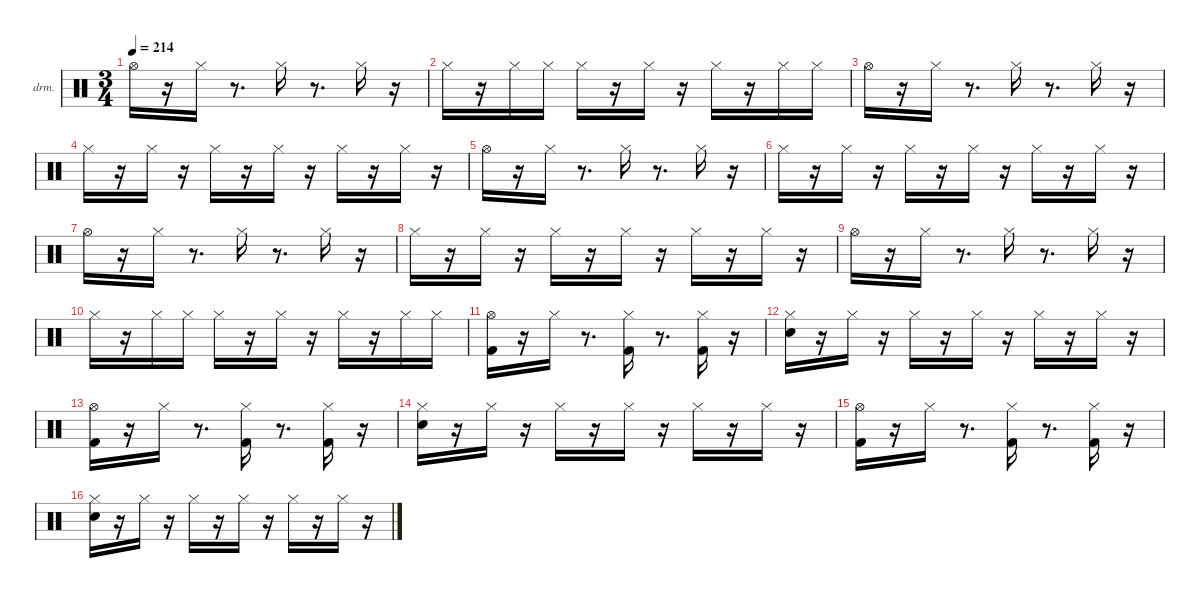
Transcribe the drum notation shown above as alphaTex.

\hideDynamics
\bracketExtendMode nobrackets
\firstSystemTrackNameOrientation horizontal
\otherSystemsTrackNameOrientation horizontal
\track ("EZdrummer 3" "drm.") {instrument percussion}
\staff {score}
\articulation defaults
\ts (3 4)
\tempo 214
\clef neutral
\ks aminor "Hi-Hat (open)"{acc #}.16{dy fff beam Down}
r.16{beam Down} "Hi-Hat (closed)"{acc #}.16{dy ff beam Down} r.8{d beam Down} "Hi-Hat (closed)"{acc #}.16{dy mp beam Down} r.8{d beam Down} "Hi-Hat (closed)"{acc #}.16{dy mf beam Down} r.16{beam Down} |
"Hi-Hat (closed)"{acc #}.16{dy ff beam Down} r.16{beam Down} "Hi-Hat (closed)"{acc #}.16{dy p beam Down} "Hi-Hat (closed)"{acc #}.16{dy pp beam Down} "Hi-Hat (closed)"{acc #}.16{dy ff beam Down} r.16{beam Down} "Hi-Hat (closed)"{acc #}.16{dy ppp beam Down} r.16{beam Down} "Hi-Hat (closed)"{acc #}.16{dy mp beam Down} r.16{beam Down} "Hi-Hat (closed)"{acc #}.16{dy ppp beam Down} "Hi-Hat (closed)"{acc #}.16{beam Down} |
"Hi-Hat (open)"{acc #}.16{dy fff beam Down} r.16{beam Down} "Hi-Hat (closed)"{acc #}.16{dy ff beam Down} r.8{d beam Down} "Hi-Hat (closed)"{acc #}.16{dy mp beam Down} r.8{d beam Down} "Hi-Hat (closed)"{acc #}.16{dy mf beam Down} r.16{beam Down} |
"Hi-Hat (closed)"{acc #}.16{dy ff beam Down} r.16{beam Down} "Hi-Hat (closed)"{acc #}.16{dy ppp beam Down} r.16{beam Down} "Hi-Hat (closed)"{acc #}.16{dy mp beam Down} r.16{beam Down} "Hi-Hat (closed)"{acc #}.16{dy ppp beam Down} r.16{beam Down} "Hi-Hat (closed)"{acc #}.16{dy mp beam Down} r.16{beam Down} "Hi-Hat (closed)"{acc #}.16{dy ppp beam Down} r.16{beam Down} |
"Hi-Hat (open)"{acc #}.16{dy fff beam Down} r.16{beam Down} "Hi-Hat (closed)"{acc #}.16{dy ff beam Down} r.8{d beam Down} "Hi-Hat (closed)"{acc #}.16{dy mp beam Down} r.8{d beam Down} "Hi-Hat (closed)"{acc #}.16{dy mf beam Down} r.16{beam Down} |
"Hi-Hat (closed)"{acc #}.16{dy ff beam Down} r.16{beam Down} "Hi-Hat (closed)"{acc #}.16{dy ppp beam Down} r.16{beam Down} "Hi-Hat (closed)"{acc #}.16{dy mp beam Down} r.16{beam Down} "Hi-Hat (closed)"{acc #}.16{dy ppp beam Down} r.16{beam Down} "Hi-Hat (closed)"{acc #}.16{dy mp beam Down} r.16{beam Down} "Hi-Hat (closed)"{acc #}.16{dy ppp beam Down} r.16{beam Down} |
"Hi-Hat (open)"{acc #}.16{dy fff beam Down} r.16{beam Down} "Hi-Hat (closed)"{acc #}.16{dy ff beam Down} r.8{d beam Down} "Hi-Hat (closed)"{acc #}.16{dy mp beam Down} r.8{d beam Down} "Hi-Hat (closed)"{acc #}.16{dy mf beam Down} r.16{beam Down} |
"Hi-Hat (closed)"{acc #}.16{dy ff beam Down} r.16{beam Down} "Hi-Hat (closed)"{acc #}.16{dy ppp beam Down} r.16{beam Down} "Hi-Hat (closed)"{acc #}.16{dy mp beam Down} r.16{beam Down} "Hi-Hat (closed)"{acc #}.16{dy ppp beam Down} r.16{beam Down} "Hi-Hat (closed)"{acc #}.16{dy mp beam Down} r.16{beam Down} "Hi-Hat (closed)"{acc #}.16{dy ppp beam Down} r.16{beam Down} |
"Hi-Hat (open)"{acc #}.16{dy fff beam Down} r.16{beam Down} "Hi-Hat (closed)"{acc #}.16{dy ff beam Down} r.8{d beam Down} "Hi-Hat (closed)"{acc #}.16{dy mp beam Down} r.8{d beam Down} "Hi-Hat (closed)"{acc #}.16{dy mf beam Down} r.16{beam Down} |
"Hi-Hat (closed)"{acc #}.16{dy ff beam Down} r.16{beam Down} "Hi-Hat (closed)"{acc #}.16{dy p beam Down} "Hi-Hat (closed)"{acc #}.16{dy pp beam Down} "Hi-Hat (closed)"{acc #}.16{dy ff beam Down} r.16{beam Down} "Hi-Hat (closed)"{acc #}.16{dy ppp beam Down} r.16{beam Down} "Hi-Hat (closed)"{acc #}.16{dy mp beam Down} r.16{beam Down} "Hi-Hat (closed)"{acc #}.16{dy ppp beam Down} "Hi-Hat (closed)"{acc #}.16{beam Down} |
("Kick (hit) 2" "Hi-Hat (open)"{acc #}).16{dy ff beam Down} r.16{beam Down} "Hi-Hat (closed)"{acc #}.16{beam Down} r.8{d beam Down} ("Kick (hit) 2" "Hi-Hat (closed)"{acc #}).16{dy mp beam Down} r.8{d beam Down} ("Kick (hit) 2" "Hi-Hat (closed)"{acc #}).16{dy mf beam Down} r.16{beam Down} |
("Snare (hit) 2" "Hi-Hat (closed)"{acc #}).16{dy ff beam Down} r.16{beam Down} "Hi-Hat (closed)"{acc #}.16{dy ppp beam Down} r.16{beam Down} "Hi-Hat (closed)"{acc #}.16{dy mp beam Down} r.16{beam Down} "Hi-Hat (closed)"{acc #}.16{dy ppp beam Down} r.16{beam Down} "Hi-Hat (closed)"{acc #}.16{dy mp beam Down} r.16{beam Down} "Hi-Hat (closed)"{acc #}.16{dy ppp beam Down} r.16{beam Down} |
("Kick (hit) 2" "Hi-Hat (open)"{acc #}).16{dy ff beam Down} r.16{beam Down} "Hi-Hat (closed)"{acc #}.16{beam Down} r.8{d beam Down} ("Kick (hit) 2" "Hi-Hat (closed)"{acc #}).16{dy mp beam Down} r.8{d beam Down} ("Kick (hit) 2" "Hi-Hat (closed)"{acc #}).16{dy mf beam Down} r.16{beam Down} |
("Snare (hit) 2" "Hi-Hat (closed)"{acc #}).16{dy ff beam Down} r.16{beam Down} "Hi-Hat (closed)"{acc #}.16{dy ppp beam Down} r.16{beam Down} "Hi-Hat (closed)"{acc #}.16{dy mp beam Down} r.16{beam Down} "Hi-Hat (closed)"{acc #}.16{dy ppp beam Down} r.16{beam Down} "Hi-Hat (closed)"{acc #}.16{dy mp beam Down} r.16{beam Down} "Hi-Hat (closed)"{acc #}.16{dy ppp beam Down} r.16{beam Down} |
("Kick (hit) 2" "Hi-Hat (open)"{acc #}).16{dy ff beam Down} r.16{beam Down} "Hi-Hat (closed)"{acc #}.16{beam Down} r.8{d beam Down} ("Kick (hit) 2" "Hi-Hat (closed)"{acc #}).16{dy p beam Down} r.8{d beam Down} ("Kick (hit) 2" "Hi-Hat (closed)"{acc #}).16{dy mf beam Down} r.16{beam Down} |
("Snare (hit) 2" "Hi-Hat (closed)"{acc #}).16{dy ff beam Down} r.16{beam Down} "Hi-Hat (closed)"{acc #}.16{dy ppp beam Down} r.16{beam Down} "Hi-Hat (closed)"{acc #}.16{dy mp beam Down} r.16{beam Down} "Hi-Hat (closed)"{acc #}.16{dy ppp beam Down} r.16{beam Down} "Hi-Hat (closed)"{acc #}.16{dy mp beam Down} r.16{beam Down} "Hi-Hat (closed)"{acc #}.16{dy ppp beam Down} r.16{beam Down}
